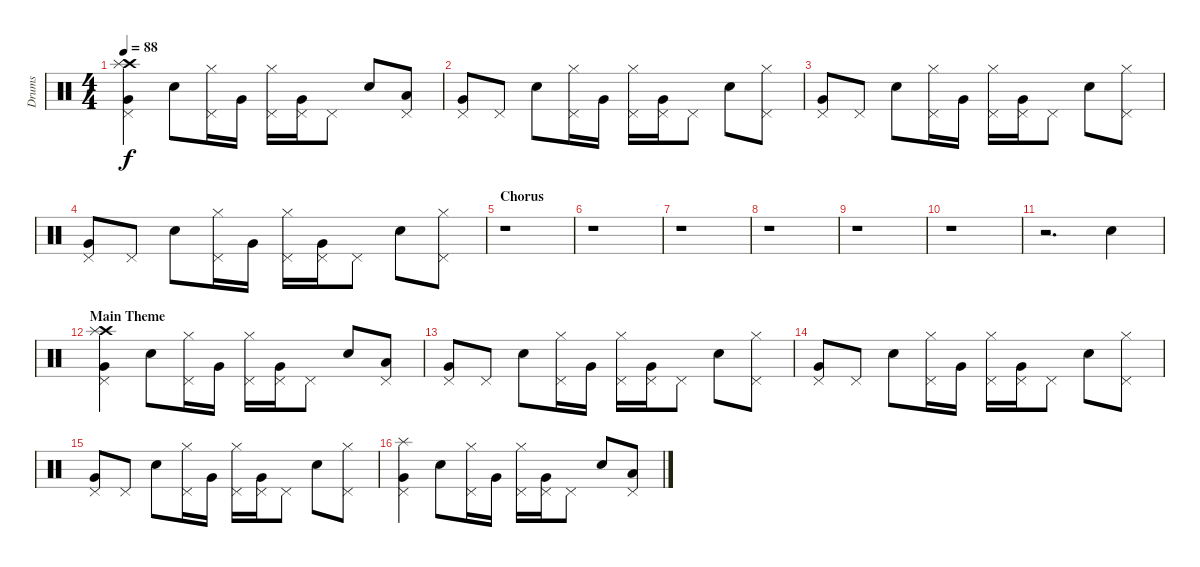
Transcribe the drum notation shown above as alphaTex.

\track ("Drums" "Drums") {instrument percussion}
\staff {score}
\articulation defaults
\ts (4 4)
\tempo 88
\clef neutral
\ks c
("Crash high (hit)" "Very Low Tom (hit)" "Pedal Hi-Hat (hit)" "Splash (hit)").4{dy f} "Electric Snare (hit)".8 ("Hi-Hat (closed)" "Pedal Hi-Hat (hit)").16 "Very Low Tom (hit)".16 ("Hi-Hat (closed)" "Pedal Hi-Hat (hit)").16 ("Very Low Tom (hit)" "Pedal Hi-Hat (hit)").16 "Pedal Hi-Hat (hit)".8 "Electric Snare (hit)".8 ("Low Floor Tom (hit)" "Pedal Hi-Hat (hit)").8 |
("Very Low Tom (hit)" "Pedal Hi-Hat (hit)").8 "Pedal Hi-Hat (hit)".8 "Electric Snare (hit)".8 ("Hi-Hat (closed)" "Pedal Hi-Hat (hit)").16 "Very Low Tom (hit)".16 ("Hi-Hat (closed)" "Pedal Hi-Hat (hit)").16 ("Very Low Tom (hit)" "Pedal Hi-Hat (hit)").16 "Pedal Hi-Hat (hit)".8 "Electric Snare (hit)".8 ("Hi-Hat (closed)" "Pedal Hi-Hat (hit)").8 |
("Very Low Tom (hit)" "Pedal Hi-Hat (hit)").8 "Pedal Hi-Hat (hit)".8 "Electric Snare (hit)".8 ("Hi-Hat (closed)" "Pedal Hi-Hat (hit)").16 "Very Low Tom (hit)".16 ("Hi-Hat (closed)" "Pedal Hi-Hat (hit)").16 ("Very Low Tom (hit)" "Pedal Hi-Hat (hit)").16 "Pedal Hi-Hat (hit)".8 "Electric Snare (hit)".8 ("Hi-Hat (closed)" "Pedal Hi-Hat (hit)").8 |
("Very Low Tom (hit)" "Pedal Hi-Hat (hit)").8 "Pedal Hi-Hat (hit)".8 "Electric Snare (hit)".8 ("Hi-Hat (closed)" "Pedal Hi-Hat (hit)").16 "Very Low Tom (hit)".16 ("Hi-Hat (closed)" "Pedal Hi-Hat (hit)").16 ("Very Low Tom (hit)" "Pedal Hi-Hat (hit)").16 "Pedal Hi-Hat (hit)".8 "Electric Snare (hit)".8 ("Hi-Hat (closed)" "Pedal Hi-Hat (hit)").8 |
\section ("" "Chorus")
r.1 |
r.1 |
r.1 |
r.1 |
r.1 |
r.1 |
r.2{d} "Electric Snare (hit)".4 |
\section ("" "Main Theme")
("Crash high (hit)" "Very Low Tom (hit)" "Pedal Hi-Hat (hit)" "Splash (hit)").4 "Electric Snare (hit)".8 ("Hi-Hat (closed)" "Pedal Hi-Hat (hit)").16 "Very Low Tom (hit)".16 ("Hi-Hat (closed)" "Pedal Hi-Hat (hit)").16 ("Very Low Tom (hit)" "Pedal Hi-Hat (hit)").16 "Pedal Hi-Hat (hit)".8 "Electric Snare (hit)".8 ("Low Floor Tom (hit)" "Pedal Hi-Hat (hit)").8 |
("Very Low Tom (hit)" "Pedal Hi-Hat (hit)").8 "Pedal Hi-Hat (hit)".8 "Electric Snare (hit)".8 ("Hi-Hat (closed)" "Pedal Hi-Hat (hit)").16 "Very Low Tom (hit)".16 ("Hi-Hat (closed)" "Pedal Hi-Hat (hit)").16 ("Very Low Tom (hit)" "Pedal Hi-Hat (hit)").16 "Pedal Hi-Hat (hit)".8 "Electric Snare (hit)".8 ("Hi-Hat (closed)" "Pedal Hi-Hat (hit)").8 |
("Very Low Tom (hit)" "Pedal Hi-Hat (hit)").8 "Pedal Hi-Hat (hit)".8 "Electric Snare (hit)".8 ("Hi-Hat (closed)" "Pedal Hi-Hat (hit)").16 "Very Low Tom (hit)".16 ("Hi-Hat (closed)" "Pedal Hi-Hat (hit)").16 ("Very Low Tom (hit)" "Pedal Hi-Hat (hit)").16 "Pedal Hi-Hat (hit)".8 "Electric Snare (hit)".8 ("Hi-Hat (closed)" "Pedal Hi-Hat (hit)").8 |
("Very Low Tom (hit)" "Pedal Hi-Hat (hit)").8 "Pedal Hi-Hat (hit)".8 "Electric Snare (hit)".8 ("Hi-Hat (closed)" "Pedal Hi-Hat (hit)").16 "Very Low Tom (hit)".16 ("Hi-Hat (closed)" "Pedal Hi-Hat (hit)").16 ("Very Low Tom (hit)" "Pedal Hi-Hat (hit)").16 "Pedal Hi-Hat (hit)".8 "Electric Snare (hit)".8 ("Hi-Hat (closed)" "Pedal Hi-Hat (hit)").8 |
("Very Low Tom (hit)" "Pedal Hi-Hat (hit)" "Splash (hit)").4 "Electric Snare (hit)".8 ("Hi-Hat (closed)" "Pedal Hi-Hat (hit)").16 "Very Low Tom (hit)".16 ("Hi-Hat (closed)" "Pedal Hi-Hat (hit)").16 ("Very Low Tom (hit)" "Pedal Hi-Hat (hit)").16 "Pedal Hi-Hat (hit)".8 "Electric Snare (hit)".8 ("Low Floor Tom (hit)" "Pedal Hi-Hat (hit)").8
